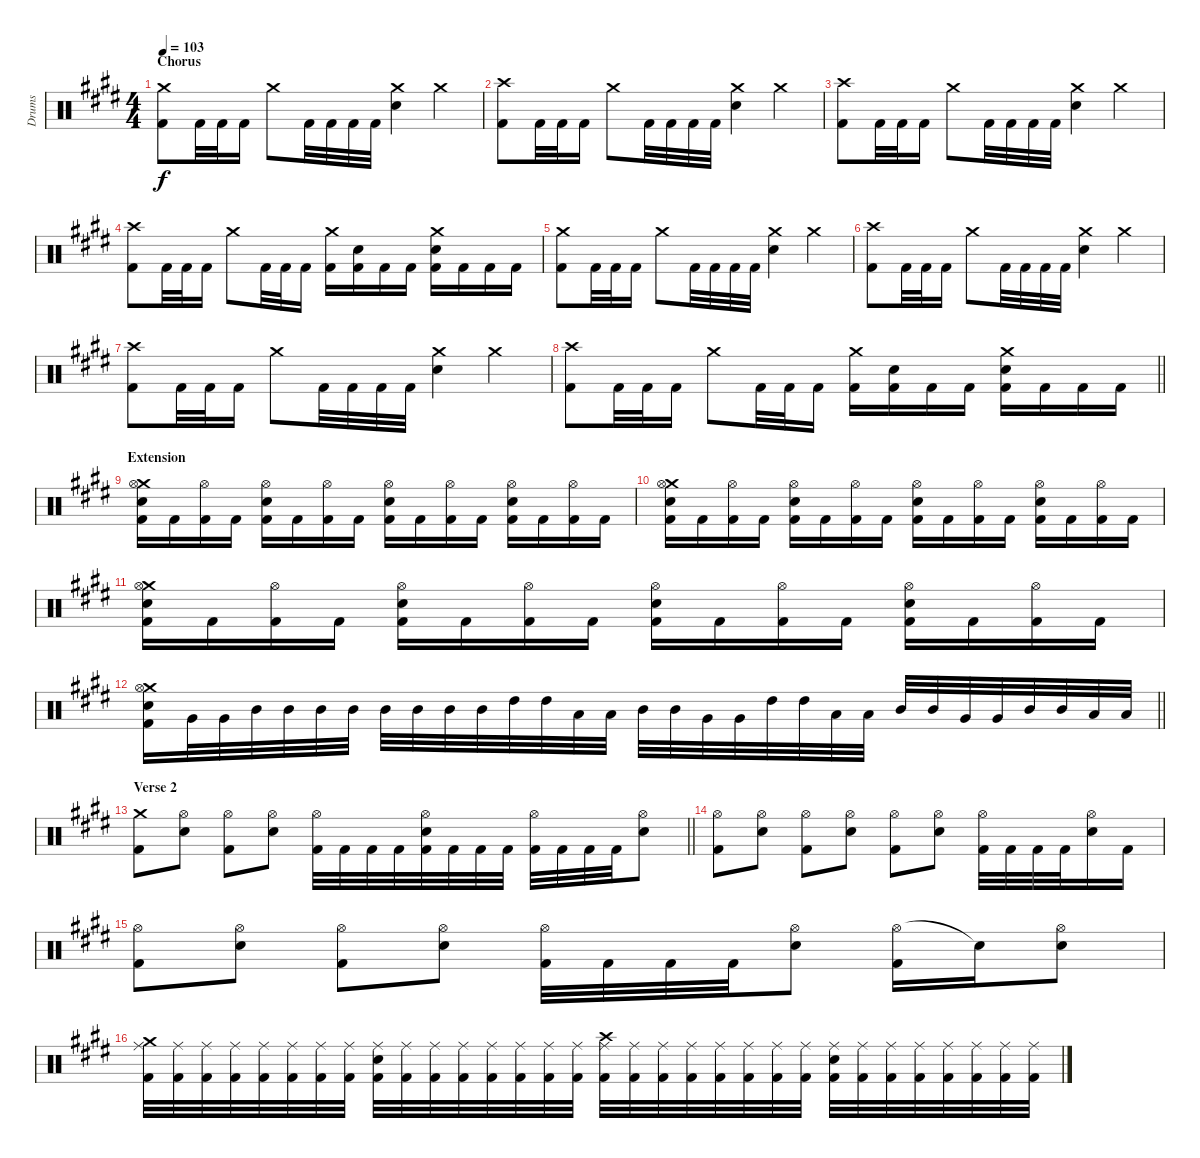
\track ("Drums" "Drums") {instrument percussion}
\staff {score}
\articulation defaults
\ts (4 4)
\section ("" "Chorus")
\tempo 103
\clef neutral
\ks c#minor
("Crash medium (hit)" "Kick (hit) 2").8{dy f} "Kick (hit) 2".32 "Kick (hit) 2".32 "Kick (hit) 2".16 "Crash medium (hit)".8 "Kick (hit) 2".32 "Kick (hit) 2".32 "Kick (hit) 2".32 "Kick (hit) 2".32 ("Crash medium (hit)" "Snare (hit) 2").4 "Crash medium (hit)".4 |
("Crash high (hit)" "Kick (hit) 2").8 "Kick (hit) 2".32 "Kick (hit) 2".32 "Kick (hit) 2".16 "Crash medium (hit)".8 "Kick (hit) 2".32 "Kick (hit) 2".32 "Kick (hit) 2".32 "Kick (hit) 2".32 ("Crash medium (hit)" "Snare (hit) 2").4 "Crash medium (hit)".4 |
("Crash high (hit)" "Kick (hit) 2").8 "Kick (hit) 2".32 "Kick (hit) 2".32 "Kick (hit) 2".16 "Crash medium (hit)".8 "Kick (hit) 2".32 "Kick (hit) 2".32 "Kick (hit) 2".32 "Kick (hit) 2".32 ("Crash medium (hit)" "Snare (hit) 2").4 "Crash medium (hit)".4 |
("Crash high (hit)" "Kick (hit) 2").8 "Kick (hit) 2".32 "Kick (hit) 2".32 "Kick (hit) 2".16 "Crash medium (hit)".8 "Kick (hit) 2".32 "Kick (hit) 2".32 "Kick (hit) 2".16 ("Crash medium (hit)" "Kick (hit) 2").16 ("Snare (hit) 2" "Kick (hit) 2").16 "Kick (hit) 2".16 "Kick (hit) 2".16 ("Crash medium (hit)" "Snare (hit) 2" "Kick (hit) 2").16 "Kick (hit) 2".16 "Kick (hit) 2".16 "Kick (hit) 2".16 |
("Crash medium (hit)" "Kick (hit) 2").8 "Kick (hit) 2".32 "Kick (hit) 2".32 "Kick (hit) 2".16 "Crash medium (hit)".8 "Kick (hit) 2".32 "Kick (hit) 2".32 "Kick (hit) 2".32 "Kick (hit) 2".32 ("Crash medium (hit)" "Snare (hit) 2").4 "Crash medium (hit)".4 |
("Crash high (hit)" "Kick (hit) 2").8 "Kick (hit) 2".32 "Kick (hit) 2".32 "Kick (hit) 2".16 "Crash medium (hit)".8 "Kick (hit) 2".32 "Kick (hit) 2".32 "Kick (hit) 2".32 "Kick (hit) 2".32 ("Crash medium (hit)" "Snare (hit) 2").4 "Crash medium (hit)".4 |
("Crash high (hit)" "Kick (hit) 2").8 "Kick (hit) 2".32 "Kick (hit) 2".32 "Kick (hit) 2".16 "Crash medium (hit)".8 "Kick (hit) 2".32 "Kick (hit) 2".32 "Kick (hit) 2".32 "Kick (hit) 2".32 ("Crash medium (hit)" "Snare (hit) 2").4 "Crash medium (hit)".4 |
\barLineRight lightlight
("Crash high (hit)" "Kick (hit) 2").8 "Kick (hit) 2".32 "Kick (hit) 2".32 "Kick (hit) 2".16 "Crash medium (hit)".8 "Kick (hit) 2".32 "Kick (hit) 2".32 "Kick (hit) 2".16 ("Crash medium (hit)" "Kick (hit) 2").16 ("Snare (hit) 2" "Kick (hit) 2").16 "Kick (hit) 2".16 "Kick (hit) 2".16 ("Crash medium (hit)" "Snare (hit) 2" "Kick (hit) 2").16 "Kick (hit) 2".16 "Kick (hit) 2".16 "Kick (hit) 2".16 |
\section ("" "Extension")
("Crash medium (hit)" "Snare (hit) 2" "Hi-Hat (open)" "Kick (hit) 2").16 "Kick (hit) 2".16 ("Hi-Hat (open)" "Kick (hit) 2").16 "Kick (hit) 2".16 ("Snare (hit) 2" "Hi-Hat (open)" "Kick (hit) 2").16 "Kick (hit) 2".16 ("Hi-Hat (open)" "Kick (hit) 2").16 "Kick (hit) 2".16 ("Snare (hit) 2" "Hi-Hat (open)" "Kick (hit) 2").16 "Kick (hit) 2".16 ("Hi-Hat (open)" "Kick (hit) 2").16 "Kick (hit) 2".16 ("Snare (hit) 2" "Hi-Hat (open)" "Kick (hit) 2").16 "Kick (hit) 2".16 ("Hi-Hat (open)" "Kick (hit) 2").16 "Kick (hit) 2".16 |
("Crash medium (hit)" "Snare (hit) 2" "Hi-Hat (open)" "Kick (hit) 2").16 "Kick (hit) 2".16 ("Hi-Hat (open)" "Kick (hit) 2").16 "Kick (hit) 2".16 ("Snare (hit) 2" "Hi-Hat (open)" "Kick (hit) 2").16 "Kick (hit) 2".16 ("Hi-Hat (open)" "Kick (hit) 2").16 "Kick (hit) 2".16 ("Snare (hit) 2" "Hi-Hat (open)" "Kick (hit) 2").16 "Kick (hit) 2".16 ("Hi-Hat (open)" "Kick (hit) 2").16 "Kick (hit) 2".16 ("Snare (hit) 2" "Hi-Hat (open)" "Kick (hit) 2").16 "Kick (hit) 2".16 ("Hi-Hat (open)" "Kick (hit) 2").16 "Kick (hit) 2".16 |
("Crash medium (hit)" "Snare (hit) 2" "Hi-Hat (open)" "Kick (hit) 2").16 "Kick (hit) 2".16 ("Hi-Hat (open)" "Kick (hit) 2").16 "Kick (hit) 2".16 ("Snare (hit) 2" "Hi-Hat (open)" "Kick (hit) 2").16 "Kick (hit) 2".16 ("Hi-Hat (open)" "Kick (hit) 2").16 "Kick (hit) 2".16 ("Snare (hit) 2" "Hi-Hat (open)" "Kick (hit) 2").16 "Kick (hit) 2".16 ("Hi-Hat (open)" "Kick (hit) 2").16 "Kick (hit) 2".16 ("Snare (hit) 2" "Hi-Hat (open)" "Kick (hit) 2").16 "Kick (hit) 2".16 ("Hi-Hat (open)" "Kick (hit) 2").16 "Kick (hit) 2".16 |
\barLineRight lightlight
("Crash medium (hit)" "Snare (hit) 2" "Hi-Hat (open)" "Kick (hit) 2").16 "Very Low Tom (hit)".32 "Very Low Tom (hit)".32 "Mid Tom (hit)".32 "Mid Tom (hit)".32 "Mid Tom (hit)".32 "Mid Tom (hit)".32 "Mid Tom (hit)".32 "Mid Tom (hit)".32 "Mid Tom (hit)".32 "Mid Tom (hit)".32 "High Tom (hit)".32 "High Tom (hit)".32 "Low Tom (hit)".32 "Low Tom (hit)".32 "Mid Tom (hit)".32 "Mid Tom (hit)".32 "Very Low Tom (hit)".32 "Very Low Tom (hit)".32 "High Tom (hit)".32 "High Tom (hit)".32 "Low Tom (hit)".32 "Low Tom (hit)".32 "Mid Tom (hit)".32 "Mid Tom (hit)".32 "Very Low Tom (hit)".32 "Very Low Tom (hit)".32 "Mid Tom (hit)".32 "Mid Tom (hit)".32 "Low Tom (hit)".32 "Low Tom (hit)".32 |
\section ("" "Verse 2")
\barLineRight lightlight
("Crash medium (hit)" "Kick (hit) 2").8 ("Hi-Hat (open)" "Snare (hit) 2").8 ("Hi-Hat (open)" "Kick (hit) 2").8 ("Hi-Hat (open)" "Snare (hit) 2").8 ("Hi-Hat (open)" "Kick (hit) 2").32 "Kick (hit) 2".32 "Kick (hit) 2".32 "Kick (hit) 2".32 ("Hi-Hat (open)" "Snare (hit) 2" "Kick (hit) 2").32 "Kick (hit) 2".32 "Kick (hit) 2".32 "Kick (hit) 2".32 ("Hi-Hat (open)" "Kick (hit) 2").32 "Kick (hit) 2".32 "Kick (hit) 2".32 "Kick (hit) 2".32 ("Hi-Hat (open)" "Snare (hit) 2").8 |
("Hi-Hat (open)" "Kick (hit) 2").8 ("Hi-Hat (open)" "Snare (hit) 2").8 ("Hi-Hat (open)" "Kick (hit) 2").8 ("Hi-Hat (open)" "Snare (hit) 2").8 ("Hi-Hat (open)" "Kick (hit) 2").8 ("Hi-Hat (open)" "Snare (hit) 2").8 ("Hi-Hat (open)" "Kick (hit) 2").32 "Kick (hit) 2".32 "Kick (hit) 2".32 "Kick (hit) 2".32 ("Hi-Hat (open)" "Snare (hit) 2").16 "Kick (hit) 2".16 |
("Hi-Hat (open)" "Kick (hit) 2").8 ("Hi-Hat (open)" "Snare (hit) 2").8 ("Hi-Hat (open)" "Kick (hit) 2").8 ("Hi-Hat (open)" "Snare (hit) 2").8 ("Hi-Hat (open)" "Kick (hit) 2").32 "Kick (hit) 2".32 "Kick (hit) 2".32 "Kick (hit) 2".32 ("Hi-Hat (open)" "Snare (hit) 2").8 ("Hi-Hat (open)" "Kick (hit) 2").16 "Snare (hit)"{t}.16 ("Hi-Hat (open)" "Snare (hit) 2").8 |
("Crash medium (hit)" "Ride (middle)" "Kick (hit) 2").32 ("Ride (middle)" "Kick (hit) 2").32 ("Ride (middle)" "Kick (hit) 2").32 ("Ride (middle)" "Kick (hit) 2").32 ("Ride (middle)" "Kick (hit) 2").32 ("Ride (middle)" "Kick (hit) 2").32 ("Ride (middle)" "Kick (hit) 2").32 ("Ride (middle)" "Kick (hit) 2").32 ("Snare (hit) 2" "Ride (middle)" "Kick (hit) 2").32 ("Ride (middle)" "Kick (hit) 2").32 ("Ride (middle)" "Kick (hit) 2").32 ("Ride (middle)" "Kick (hit) 2").32 ("Ride (middle)" "Kick (hit) 2").32 ("Ride (middle)" "Kick (hit) 2").32 ("Ride (middle)" "Kick (hit) 2").32 ("Ride (middle)" "Kick (hit) 2").32 ("Crash high (hit)" "Ride (middle)" "Kick (hit) 2").32 ("Ride (middle)" "Kick (hit) 2").32 ("Ride (middle)" "Kick (hit) 2").32 ("Ride (middle)" "Kick (hit) 2").32 ("Ride (middle)" "Kick (hit) 2").32 ("Ride (middle)" "Kick (hit) 2").32 ("Ride (middle)" "Kick (hit) 2").32 ("Ride (middle)" "Kick (hit) 2").32 ("Snare (hit) 2" "Ride (middle)" "Kick (hit) 2").32 ("Ride (middle)" "Kick (hit) 2").32 ("Ride (middle)" "Kick (hit) 2").32 ("Ride (middle)" "Kick (hit) 2").32 ("Ride (middle)" "Kick (hit) 2").32 ("Ride (middle)" "Kick (hit) 2").32 ("Ride (middle)" "Kick (hit) 2").32 ("Ride (middle)" "Kick (hit) 2").32
